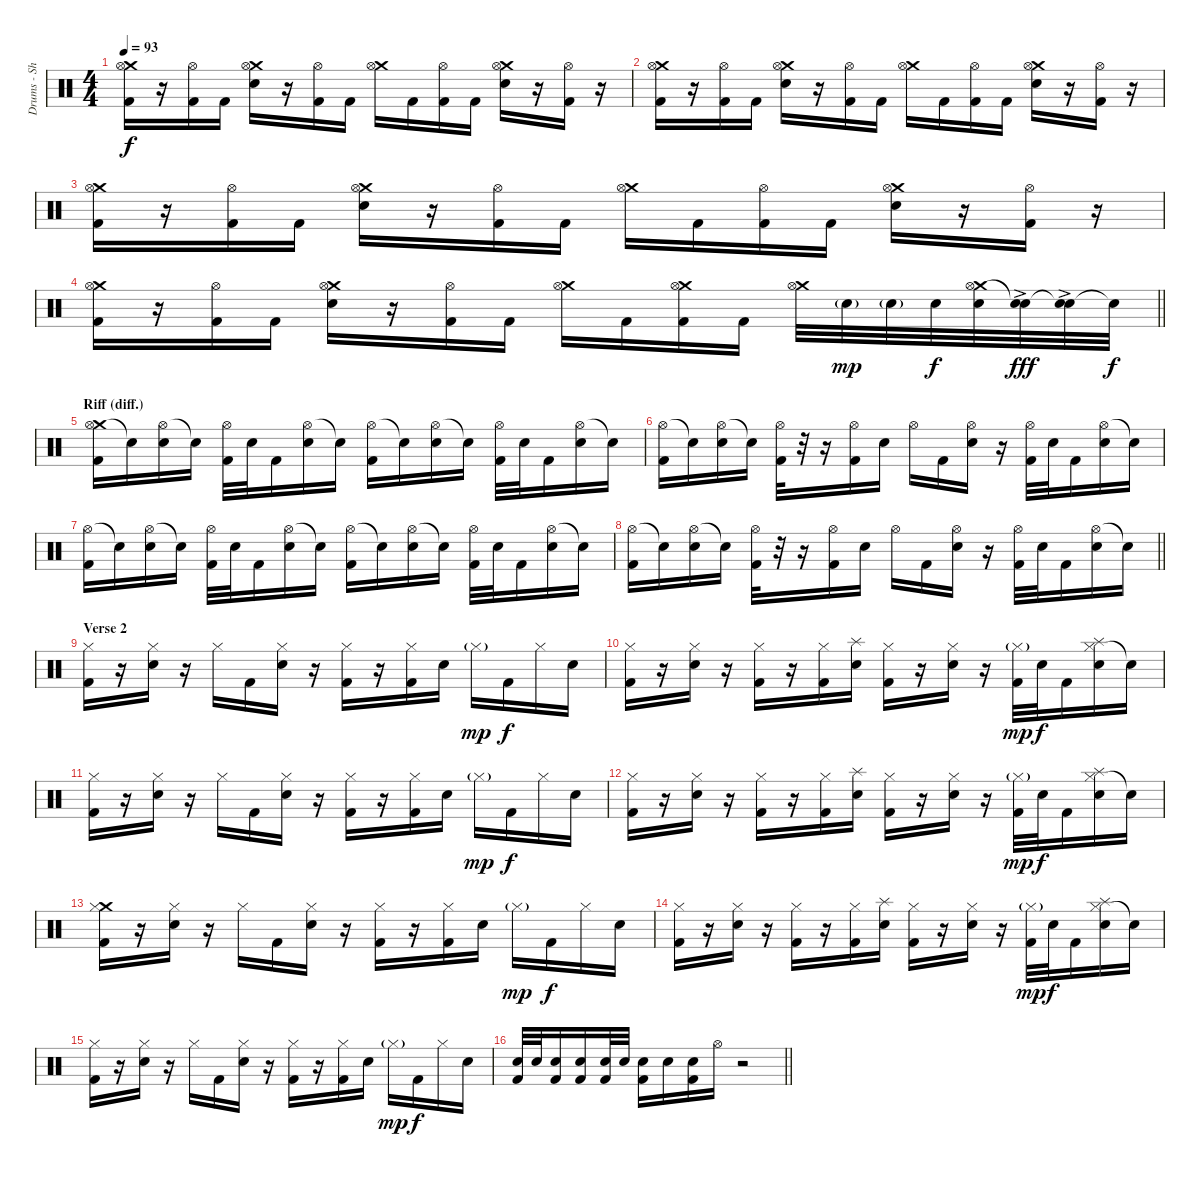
\track ("Drums - Shinya" "Drums - Sh") {instrument percussion}
\staff {score}
\articulation defaults
\ts (4 4)
\tempo 93
\clef neutral
\ks c
("Crash medium (hit)" "Hi-Hat (open)" "Kick (hit) 2").16{dy f} r.16 ("Hi-Hat (open)" "Kick (hit) 2").16 "Kick (hit) 2".16 ("Crash medium (hit)" "Hi-Hat (open)" "Electric Snare (hit)").16 r.16 ("Hi-Hat (open)" "Kick (hit) 2").16 "Kick (hit) 2".16 ("Crash medium (hit)" "Hi-Hat (open)").16 "Kick (hit) 2".16 ("Hi-Hat (open)" "Kick (hit) 2").16 "Kick (hit) 2".16 ("Crash medium (hit)" "Hi-Hat (open)" "Electric Snare (hit)").16 r.16 ("Hi-Hat (open)" "Kick (hit) 2").16 r.16 |
("Crash medium (hit)" "Hi-Hat (open)" "Kick (hit) 2").16 r.16 ("Hi-Hat (open)" "Kick (hit) 2").16 "Kick (hit) 2".16 ("Crash medium (hit)" "Hi-Hat (open)" "Electric Snare (hit)").16 r.16 ("Hi-Hat (open)" "Kick (hit) 2").16 "Kick (hit) 2".16 ("Crash medium (hit)" "Hi-Hat (open)").16 "Kick (hit) 2".16 ("Hi-Hat (open)" "Kick (hit) 2").16 "Kick (hit) 2".16 ("Crash medium (hit)" "Hi-Hat (open)" "Electric Snare (hit)").16 r.16 ("Hi-Hat (open)" "Kick (hit) 2").16 r.16 |
("Crash medium (hit)" "Hi-Hat (open)" "Kick (hit) 2").16 r.16 ("Hi-Hat (open)" "Kick (hit) 2").16 "Kick (hit) 2".16 ("Crash medium (hit)" "Hi-Hat (open)" "Electric Snare (hit)").16 r.16 ("Hi-Hat (open)" "Kick (hit) 2").16 "Kick (hit) 2".16 ("Crash medium (hit)" "Hi-Hat (open)").16 "Kick (hit) 2".16 ("Hi-Hat (open)" "Kick (hit) 2").16 "Kick (hit) 2".16 ("Crash medium (hit)" "Hi-Hat (open)" "Electric Snare (hit)").16 r.16 ("Hi-Hat (open)" "Kick (hit) 2").16 r.16 |
\barLineRight lightlight
("Crash medium (hit)" "Hi-Hat (open)" "Kick (hit) 2").16 r.16 ("Hi-Hat (open)" "Kick (hit) 2").16 "Kick (hit) 2".16 ("Crash medium (hit)" "Hi-Hat (open)" "Electric Snare (hit)").16 r.16 ("Hi-Hat (open)" "Kick (hit) 2").16 "Kick (hit) 2".16 ("Crash medium (hit)" "Hi-Hat (open)").16 "Kick (hit) 2".16 ("Crash medium (hit)" "Hi-Hat (open)" "Kick (hit) 2").16 "Kick (hit) 2".16 ("Crash medium (hit)" "Hi-Hat (open)").32 "Electric Snare (hit)"{g}.32{dy mp} "Electric Snare (hit)"{g}.32 "Electric Snare (hit)".32{dy f} ("Crash medium (hit)" "Hi-Hat (open)" "Electric Snare (hit)").32 ("Snare (hit)"{t} "Electric Snare (hit)"{ac}).32{dy fff} ("Snare (hit)"{t} "Electric Snare (hit)"{ac}).32 "Snare (hit)"{t}.32{dy f} |
\section ("" "Riff (diff.)")
("Crash medium (hit)" "Hi-Hat (open)" "Kick (hit) 2").16 "Snare (hit)"{t}.16 ("Hi-Hat (open)" "Electric Snare (hit)").16 "Snare (hit)"{t}.16 ("Hi-Hat (open)" "Kick (hit) 2").32 "Electric Snare (hit)".32 "Kick (hit) 2".16 ("Hi-Hat (open)" "Electric Snare (hit)").16 "Snare (hit)"{t}.16 ("Hi-Hat (open)" "Kick (hit) 2").16 "Snare (hit)"{t}.16 ("Hi-Hat (open)" "Electric Snare (hit)").16 "Electric Snare (hit)"{t}.16 ("Hi-Hat (open)" "Kick (hit) 2").32 "Electric Snare (hit)".32 "Kick (hit) 2".16 ("Hi-Hat (open)" "Electric Snare (hit)").16 "Snare (hit)"{t}.16 |
("Hi-Hat (open)" "Kick (hit) 2").16 "Snare (hit)"{t}.16 ("Hi-Hat (open)" "Electric Snare (hit)").16 "Snare (hit)"{t}.16 ("Hi-Hat (open)" "Kick (hit) 2").32 r.32 r.16 ("Hi-Hat (open)" "Kick (hit) 2").16 "Electric Snare (hit)".16 "Hi-Hat (open)".16 "Kick (hit) 2".16 ("Hi-Hat (open)" "Electric Snare (hit)").16 r.16 ("Hi-Hat (open)" "Kick (hit) 2").32 "Electric Snare (hit)".32 "Kick (hit) 2".16 ("Hi-Hat (open)" "Electric Snare (hit)").16 "Snare (hit)"{t}.16 |
("Hi-Hat (open)" "Kick (hit) 2").16 "Snare (hit)"{t}.16 ("Hi-Hat (open)" "Electric Snare (hit)").16 "Snare (hit)"{t}.16 ("Hi-Hat (open)" "Kick (hit) 2").32 "Electric Snare (hit)".32 "Kick (hit) 2".16 ("Hi-Hat (open)" "Electric Snare (hit)").16 "Snare (hit)"{t}.16 ("Hi-Hat (open)" "Kick (hit) 2").16 "Snare (hit)"{t}.16 ("Hi-Hat (open)" "Electric Snare (hit)").16 "Electric Snare (hit)"{t}.16 ("Hi-Hat (open)" "Kick (hit) 2").32 "Electric Snare (hit)".32 "Kick (hit) 2".16 ("Hi-Hat (open)" "Electric Snare (hit)").16 "Snare (hit)"{t}.16 |
\barLineRight lightlight
("Hi-Hat (open)" "Kick (hit) 2").16 "Snare (hit)"{t}.16 ("Hi-Hat (open)" "Electric Snare (hit)").16 "Snare (hit)"{t}.16 ("Hi-Hat (open)" "Kick (hit) 2").32 r.32 r.16 ("Hi-Hat (open)" "Kick (hit) 2").16 "Electric Snare (hit)".16 "Hi-Hat (open)".16 "Kick (hit) 2".16 ("Hi-Hat (open)" "Electric Snare (hit)").16 r.16 ("Hi-Hat (open)" "Kick (hit) 2").32 "Electric Snare (hit)".32 "Kick (hit) 2".16 ("Hi-Hat (open)" "Electric Snare (hit)").16 "Snare (hit)"{t}.16 |
\section ("" "Verse 2")
("Hi-Hat (closed)" "Kick (hit) 2").16 r.16 ("Hi-Hat (closed)" "Electric Snare (hit)").16 r.16 "Hi-Hat (closed)".16 "Kick (hit) 2".16 ("Hi-Hat (closed)" "Electric Snare (hit)").16 r.16 ("Hi-Hat (closed)" "Kick (hit) 2").16 r.16 ("Hi-Hat (closed)" "Kick (hit) 2").16 "Electric Snare (hit)".16 "Hi-Hat (closed)"{g}.16{dy mp} "Kick (hit) 2".16{dy f} "Hi-Hat (closed)".16 "Electric Snare (hit)".16 |
("Hi-Hat (closed)" "Kick (hit) 2").16 r.16 ("Hi-Hat (closed)" "Electric Snare (hit)").16 r.16 ("Hi-Hat (closed)" "Kick (hit) 2").16 r.16 ("Hi-Hat (closed)" "Kick (hit) 2").16 ("Splash (hit)" "Electric Snare (hit)").16 ("Hi-Hat (closed)" "Kick (hit) 2").16 r.16 ("Hi-Hat (closed)" "Electric Snare (hit)").16 r.16 ("Hi-Hat (closed)"{g} "Kick (hit) 2").32{dy mp} "Electric Snare (hit)".32{dy f} "Kick (hit) 2".16 ("Hi-Hat (closed)" "Splash (hit)" "Electric Snare (hit)").16 "Snare (hit)"{t}.16 |
("Hi-Hat (closed)" "Kick (hit) 2").16 r.16 ("Hi-Hat (closed)" "Electric Snare (hit)").16 r.16 "Hi-Hat (closed)".16 "Kick (hit) 2".16 ("Hi-Hat (closed)" "Electric Snare (hit)").16 r.16 ("Hi-Hat (closed)" "Kick (hit) 2").16 r.16 ("Hi-Hat (closed)" "Kick (hit) 2").16 "Electric Snare (hit)".16 "Hi-Hat (closed)"{g}.16{dy mp} "Kick (hit) 2".16{dy f} "Hi-Hat (closed)".16 "Electric Snare (hit)".16 |
("Hi-Hat (closed)" "Kick (hit) 2").16 r.16 ("Hi-Hat (closed)" "Electric Snare (hit)").16 r.16 ("Hi-Hat (closed)" "Kick (hit) 2").16 r.16 ("Hi-Hat (closed)" "Kick (hit) 2").16 ("Splash (hit)" "Electric Snare (hit)").16 ("Hi-Hat (closed)" "Kick (hit) 2").16 r.16 ("Hi-Hat (closed)" "Electric Snare (hit)").16 r.16 ("Hi-Hat (closed)"{g} "Kick (hit) 2").32{dy mp} "Electric Snare (hit)".32{dy f} "Kick (hit) 2".16 ("Hi-Hat (closed)" "Splash (hit)" "Electric Snare (hit)").16 "Snare (hit)"{t}.16 |
("Crash medium (hit)" "Hi-Hat (closed)" "Kick (hit) 2").16 r.16 ("Hi-Hat (closed)" "Electric Snare (hit)").16 r.16 "Hi-Hat (closed)".16 "Kick (hit) 2".16 ("Hi-Hat (closed)" "Electric Snare (hit)").16 r.16 ("Hi-Hat (closed)" "Kick (hit) 2").16 r.16 ("Hi-Hat (closed)" "Kick (hit) 2").16 "Electric Snare (hit)".16 "Hi-Hat (closed)"{g}.16{dy mp} "Kick (hit) 2".16{dy f} "Hi-Hat (closed)".16 "Electric Snare (hit)".16 |
("Hi-Hat (closed)" "Kick (hit) 2").16 r.16 ("Hi-Hat (closed)" "Electric Snare (hit)").16 r.16 ("Hi-Hat (closed)" "Kick (hit) 2").16 r.16 ("Hi-Hat (closed)" "Kick (hit) 2").16 ("Splash (hit)" "Electric Snare (hit)").16 ("Hi-Hat (closed)" "Kick (hit) 2").16 r.16 ("Hi-Hat (closed)" "Electric Snare (hit)").16 r.16 ("Hi-Hat (closed)"{g} "Kick (hit) 2").32{dy mp} "Electric Snare (hit)".32{dy f} "Kick (hit) 2".16 ("Hi-Hat (closed)" "Splash (hit)" "Electric Snare (hit)").16 "Snare (hit)"{t}.16 |
("Hi-Hat (closed)" "Kick (hit) 2").16 r.16 ("Hi-Hat (closed)" "Electric Snare (hit)").16 r.16 "Hi-Hat (closed)".16 "Kick (hit) 2".16 ("Hi-Hat (closed)" "Electric Snare (hit)").16 r.16 ("Hi-Hat (closed)" "Kick (hit) 2").16 r.16 ("Hi-Hat (closed)" "Kick (hit) 2").16 "Electric Snare (hit)".16 "Hi-Hat (closed)"{g}.16{dy mp} "Kick (hit) 2".16{dy f} "Hi-Hat (closed)".16 "Electric Snare (hit)".16 |
\barLineRight lightlight
("Electric Snare (hit)" "Kick (hit) 2").32 "Electric Snare (hit)".32 ("Electric Snare (hit)" "Kick (hit) 2").16 ("Electric Snare (hit)" "Kick (hit) 2").16 ("Electric Snare (hit)" "Kick (hit) 2").32 "Electric Snare (hit)".32 ("Electric Snare (hit)" "Kick (hit) 2").16 "Electric Snare (hit)".16 ("Electric Snare (hit)" "Kick (hit) 2").16 "Hi-Hat (open)".16 r.2
